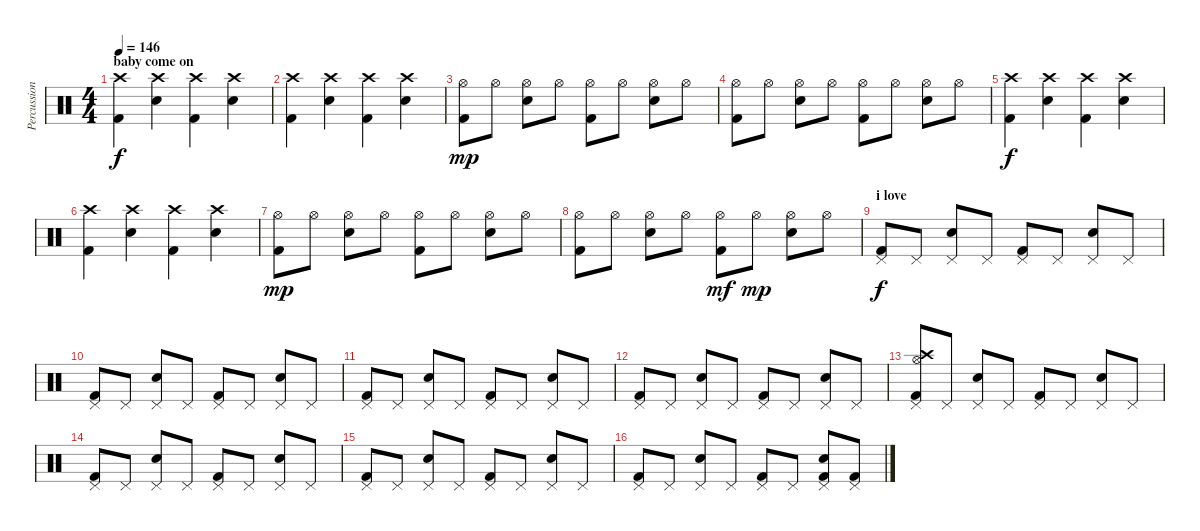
\track ("Percussion" "Percussion") {instrument percussion}
\staff {score}
\articulation defaults
\ts (4 4)
\section ("" "baby come on")
\tempo 146
\clef neutral
\ks c
("Kick (hit) 2" "Crash high (hit)").4{dy f} ("Electric Snare (hit)" "Crash high (hit)").4 ("Kick (hit) 2" "Crash high (hit)").4 ("Electric Snare (hit)" "Crash high (hit)").4 |
("Kick (hit) 2" "Crash high (hit)").4 ("Electric Snare (hit)" "Crash high (hit)").4 ("Kick (hit) 2" "Crash high (hit)").4 ("Electric Snare (hit)" "Crash high (hit)").4 |
("Kick (hit) 2" "Hi-Hat (open)").8{dy mp} "Hi-Hat (open)".8 ("Electric Snare (hit)" "Hi-Hat (open)").8 "Hi-Hat (open)".8 ("Kick (hit) 2" "Hi-Hat (open)").8 "Hi-Hat (open)".8 ("Electric Snare (hit)" "Hi-Hat (open)").8 "Hi-Hat (open)".8 |
("Kick (hit) 2" "Hi-Hat (open)").8 "Hi-Hat (open)".8 ("Electric Snare (hit)" "Hi-Hat (open)").8 "Hi-Hat (open)".8 ("Kick (hit) 2" "Hi-Hat (open)").8 "Hi-Hat (open)".8 ("Electric Snare (hit)" "Hi-Hat (open)").8 "Hi-Hat (open)".8 |
("Kick (hit) 2" "Crash high (hit)").4{dy f} ("Electric Snare (hit)" "Crash high (hit)").4 ("Kick (hit) 2" "Crash high (hit)").4 ("Electric Snare (hit)" "Crash high (hit)").4 |
("Kick (hit) 2" "Crash high (hit)").4 ("Electric Snare (hit)" "Crash high (hit)").4 ("Kick (hit) 2" "Crash high (hit)").4 ("Electric Snare (hit)" "Crash high (hit)").4 |
("Kick (hit) 2" "Hi-Hat (open)").8{dy mp} "Hi-Hat (open)".8 ("Electric Snare (hit)" "Hi-Hat (open)").8 "Hi-Hat (open)".8 ("Kick (hit) 2" "Hi-Hat (open)").8 "Hi-Hat (open)".8 ("Electric Snare (hit)" "Hi-Hat (open)").8 "Hi-Hat (open)".8 |
("Kick (hit) 2" "Hi-Hat (open)").8 "Hi-Hat (open)".8 ("Electric Snare (hit)" "Hi-Hat (open)").8 "Hi-Hat (open)".8 ("Kick (hit) 2" "Hi-Hat (open)").8{dy mf} "Hi-Hat (open)".8{dy mp} ("Electric Snare (hit)" "Hi-Hat (open)").8 "Hi-Hat (open)".8 |
\section ("" "i love ")
("Kick (hit) 2" "Pedal Hi-Hat (hit)").8{dy f} "Pedal Hi-Hat (hit)".8 ("Electric Snare (hit)" "Pedal Hi-Hat (hit)").8 "Pedal Hi-Hat (hit)".8 ("Kick (hit) 2" "Pedal Hi-Hat (hit)").8 "Pedal Hi-Hat (hit)".8 ("Electric Snare (hit)" "Pedal Hi-Hat (hit)").8 "Pedal Hi-Hat (hit)".8 |
("Kick (hit) 2" "Pedal Hi-Hat (hit)").8 "Pedal Hi-Hat (hit)".8 ("Electric Snare (hit)" "Pedal Hi-Hat (hit)").8 "Pedal Hi-Hat (hit)".8 ("Kick (hit) 2" "Pedal Hi-Hat (hit)").8 "Pedal Hi-Hat (hit)".8 ("Electric Snare (hit)" "Pedal Hi-Hat (hit)").8 "Pedal Hi-Hat (hit)".8 |
("Kick (hit) 2" "Pedal Hi-Hat (hit)").8 "Pedal Hi-Hat (hit)".8 ("Electric Snare (hit)" "Pedal Hi-Hat (hit)").8 "Pedal Hi-Hat (hit)".8 ("Kick (hit) 2" "Pedal Hi-Hat (hit)").8 "Pedal Hi-Hat (hit)".8 ("Electric Snare (hit)" "Pedal Hi-Hat (hit)").8 "Pedal Hi-Hat (hit)".8 |
("Kick (hit) 2" "Pedal Hi-Hat (hit)").8 "Pedal Hi-Hat (hit)".8 ("Electric Snare (hit)" "Pedal Hi-Hat (hit)").8 "Pedal Hi-Hat (hit)".8 ("Kick (hit) 2" "Pedal Hi-Hat (hit)").8 "Pedal Hi-Hat (hit)".8 ("Electric Snare (hit)" "Pedal Hi-Hat (hit)").8 "Pedal Hi-Hat (hit)".8 |
("Kick (hit) 2" "Pedal Hi-Hat (hit)" "Crash high (hit)" "Hi-Hat (open)").8 "Pedal Hi-Hat (hit)".8 ("Electric Snare (hit)" "Pedal Hi-Hat (hit)").8 "Pedal Hi-Hat (hit)".8 ("Kick (hit) 2" "Pedal Hi-Hat (hit)").8 "Pedal Hi-Hat (hit)".8 ("Electric Snare (hit)" "Pedal Hi-Hat (hit)").8 "Pedal Hi-Hat (hit)".8 |
("Kick (hit) 2" "Pedal Hi-Hat (hit)").8 "Pedal Hi-Hat (hit)".8 ("Electric Snare (hit)" "Pedal Hi-Hat (hit)").8 "Pedal Hi-Hat (hit)".8 ("Kick (hit) 2" "Pedal Hi-Hat (hit)").8 "Pedal Hi-Hat (hit)".8 ("Electric Snare (hit)" "Pedal Hi-Hat (hit)").8 "Pedal Hi-Hat (hit)".8 |
("Kick (hit) 2" "Pedal Hi-Hat (hit)").8 "Pedal Hi-Hat (hit)".8 ("Electric Snare (hit)" "Pedal Hi-Hat (hit)").8 "Pedal Hi-Hat (hit)".8 ("Kick (hit) 2" "Pedal Hi-Hat (hit)").8 "Pedal Hi-Hat (hit)".8 ("Electric Snare (hit)" "Pedal Hi-Hat (hit)").8 "Pedal Hi-Hat (hit)".8 |
("Kick (hit) 2" "Pedal Hi-Hat (hit)").8 "Pedal Hi-Hat (hit)".8 ("Electric Snare (hit)" "Pedal Hi-Hat (hit)").8 "Pedal Hi-Hat (hit)".8 ("Kick (hit) 2" "Pedal Hi-Hat (hit)").8 "Pedal Hi-Hat (hit)".8 ("Electric Snare (hit)" "Pedal Hi-Hat (hit)" "Kick (hit) 2").8 ("Pedal Hi-Hat (hit)" "Kick (hit) 2").8
